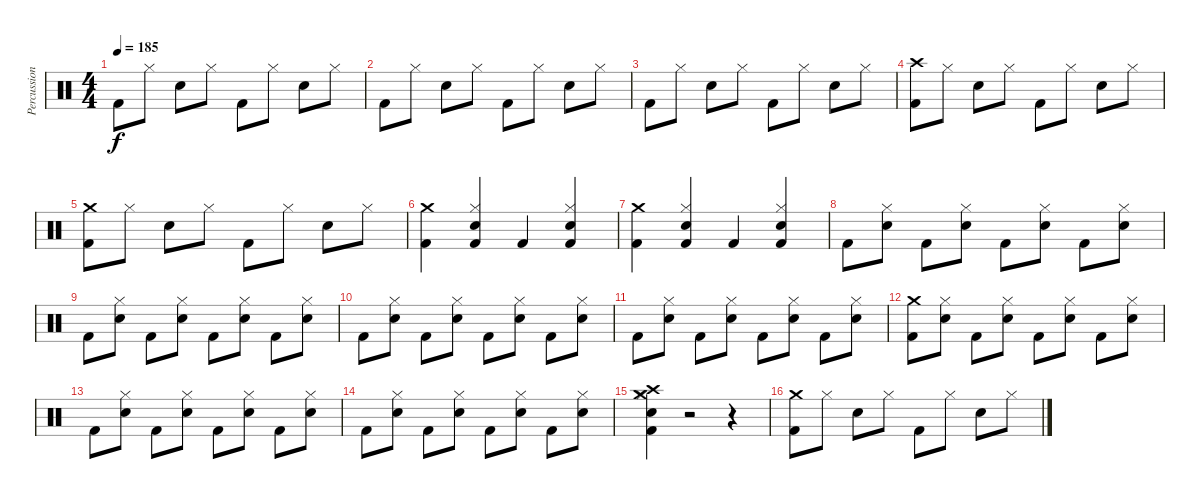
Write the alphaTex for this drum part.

\track ("Percussions" "Percussion") {instrument percussion}
\staff {score}
\articulation defaults
\ts (4 4)
\tempo 185
\clef neutral
\ks c "Kick (hit) 2".8{dy f} "Hi-Hat (closed)".8 "Snare (hit) 2".8 "Hi-Hat (closed)".8 "Kick (hit) 2".8 "Hi-Hat (closed)".8 "Snare (hit) 2".8 "Hi-Hat (closed)".8
|
"Kick (hit) 2".8 "Hi-Hat (closed)".8 "Snare (hit) 2".8 "Hi-Hat (closed)".8 "Kick (hit) 2".8 "Hi-Hat (closed)".8 "Snare (hit) 2".8 "Hi-Hat (closed)".8 |
"Kick (hit) 2".8 "Hi-Hat (closed)".8 "Snare (hit) 2".8 "Hi-Hat (closed)".8 "Kick (hit) 2".8 "Hi-Hat (closed)".8 "Snare (hit) 2".8 "Hi-Hat (closed)".8 |
("Crash high (hit)" "Kick (hit) 2").8 "Hi-Hat (closed)".8 "Snare (hit) 2".8 "Hi-Hat (closed)".8 "Kick (hit) 2".8 "Hi-Hat (closed)".8 "Snare (hit) 2".8 "Hi-Hat (closed)".8 |
("Crash medium (hit)" "Kick (hit) 2").8 "Hi-Hat (closed)".8 "Snare (hit) 2".8 "Hi-Hat (closed)".8 "Kick (hit) 2".8 "Hi-Hat (closed)".8 "Snare (hit) 2".8 "Hi-Hat (closed)".8 |
("Crash medium (hit)" "Kick (hit) 2").4 ("Hi-Hat (closed)" "Snare (hit) 2" "Kick (hit) 2").4 "Kick (hit) 2".4 ("Hi-Hat (closed)" "Snare (hit) 2" "Kick (hit) 2").4 |
("Crash medium (hit)" "Kick (hit) 2").4 ("Hi-Hat (closed)" "Snare (hit) 2" "Kick (hit) 2").4 "Kick (hit) 2".4 ("Hi-Hat (closed)" "Snare (hit) 2" "Kick (hit) 2").4 |
"Kick (hit) 2".8 ("Hi-Hat (closed)" "Snare (hit) 2").8 "Kick (hit) 2".8 ("Hi-Hat (closed)" "Snare (hit) 2").8 "Kick (hit) 2".8 ("Hi-Hat (closed)" "Snare (hit) 2").8 "Kick (hit) 2".8 ("Hi-Hat (closed)" "Snare (hit) 2").8 |
"Kick (hit) 2".8 ("Hi-Hat (closed)" "Snare (hit) 2").8 "Kick (hit) 2".8 ("Hi-Hat (closed)" "Snare (hit) 2").8 "Kick (hit) 2".8 ("Hi-Hat (closed)" "Snare (hit) 2").8 "Kick (hit) 2".8 ("Hi-Hat (closed)" "Snare (hit) 2").8 |
"Kick (hit) 2".8 ("Hi-Hat (closed)" "Snare (hit) 2").8 "Kick (hit) 2".8 ("Hi-Hat (closed)" "Snare (hit) 2").8 "Kick (hit) 2".8 ("Hi-Hat (closed)" "Snare (hit) 2").8 "Kick (hit) 2".8 ("Hi-Hat (closed)" "Snare (hit) 2").8 |
"Kick (hit) 2".8 ("Hi-Hat (closed)" "Snare (hit) 2").8 "Kick (hit) 2".8 ("Hi-Hat (closed)" "Snare (hit) 2").8 "Kick (hit) 2".8 ("Hi-Hat (closed)" "Snare (hit) 2").8 "Kick (hit) 2".8 ("Hi-Hat (closed)" "Snare (hit) 2").8 |
("Crash medium (hit)" "Kick (hit) 2").8 ("Hi-Hat (closed)" "Snare (hit) 2").8 "Kick (hit) 2".8 ("Hi-Hat (closed)" "Snare (hit) 2").8 "Kick (hit) 2".8 ("Hi-Hat (closed)" "Snare (hit) 2").8 "Kick (hit) 2".8 ("Hi-Hat (closed)" "Snare (hit) 2").8 |
"Kick (hit) 2".8 ("Hi-Hat (closed)" "Snare (hit) 2").8 "Kick (hit) 2".8 ("Hi-Hat (closed)" "Snare (hit) 2").8 "Kick (hit) 2".8 ("Hi-Hat (closed)" "Snare (hit) 2").8 "Kick (hit) 2".8 ("Hi-Hat (closed)" "Snare (hit) 2").8 |
"Kick (hit) 2".8 ("Hi-Hat (closed)" "Snare (hit) 2").8 "Kick (hit) 2".8 ("Hi-Hat (closed)" "Snare (hit) 2").8 "Kick (hit) 2".8 ("Hi-Hat (closed)" "Snare (hit) 2").8 "Kick (hit) 2".8 ("Hi-Hat (closed)" "Snare (hit) 2").8 |
("Crash medium (hit)" "Crash high (hit)" "Hi-Hat (closed)" "Snare (hit) 2" "Kick (hit) 2").4 r.2 r.4 |
("Crash medium (hit)" "Kick (hit) 2").8 "Hi-Hat (closed)".8 "Snare (hit) 2".8 "Hi-Hat (closed)".8 "Kick (hit) 2".8 "Hi-Hat (closed)".8 "Snare (hit) 2".8 "Hi-Hat (closed)".8
